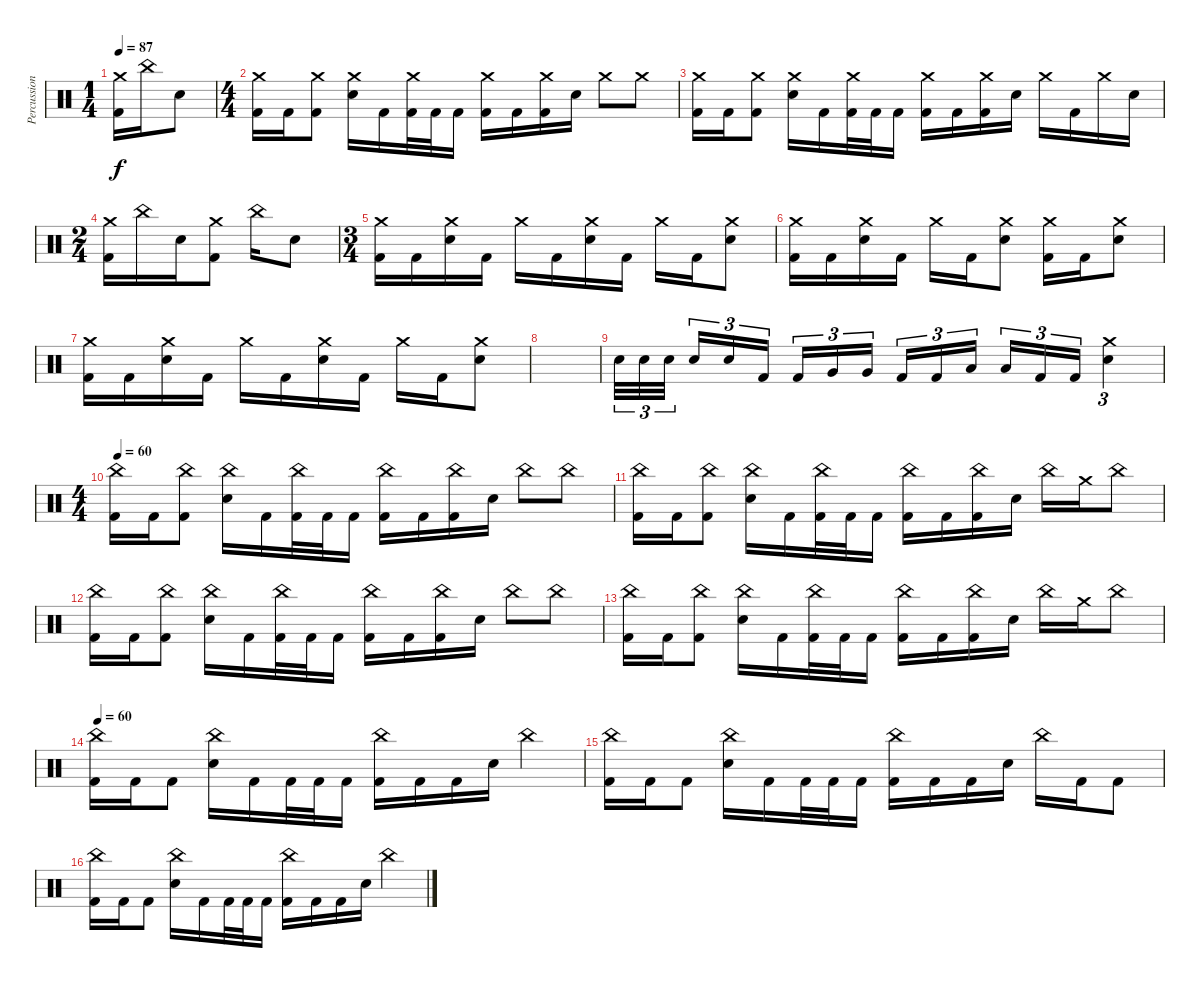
\track ("Percussion" "Percussion") {instrument percussion}
\staff {score}
\articulation defaults
\ts (1 4)
\tempo 87
\clef neutral
\ks c
("Crash medium (hit)" "Kick (hit) 2").16{dy f} "China (hit)".16 "Electric Snare (hit)".8 |
\ts (4 4)
("Crash medium (hit)" "Kick (hit) 2").16 "Kick (hit) 2".16 ("Crash medium (hit)" "Kick (hit) 2").8 ("Crash medium (hit)" "Electric Snare (hit)").16 "Kick (hit) 2".16 ("Crash medium (hit)" "Kick (hit) 2").32 "Kick (hit) 2".32 "Kick (hit) 2".16 ("Crash medium (hit)" "Kick (hit) 2").16 "Kick (hit) 2".16 ("Crash medium (hit)" "Kick (hit) 2").16 "Electric Snare (hit)".16 "Crash medium (hit)".8 "Crash medium (hit)".8 |
("Crash medium (hit)" "Kick (hit) 2").16 "Kick (hit) 2".16 ("Crash medium (hit)" "Kick (hit) 2").8 ("Crash medium (hit)" "Electric Snare (hit)").16 "Kick (hit) 2".16 ("Crash medium (hit)" "Kick (hit) 2").32 "Kick (hit) 2".32 "Kick (hit) 2".16 ("Crash medium (hit)" "Kick (hit) 2").16 "Kick (hit) 2".16 ("Crash medium (hit)" "Kick (hit) 2").16 "Electric Snare (hit)".16 "Crash medium (hit)".16 "Kick (hit) 2".16 "Crash medium (hit)".16 "Electric Snare (hit)".16 |
\ts (2 4)
("Crash medium (hit)" "Kick (hit) 2").16 "China (hit)".16 "Electric Snare (hit)".16 ("Crash medium (hit)" "Kick (hit) 2").8 "China (hit)".16 "Electric Snare (hit)".8 |
\ts (3 4)
("Crash medium (hit)" "Kick (hit) 2").16 "Kick (hit) 2".16 ("Crash medium (hit)" "Electric Snare (hit)").16 "Kick (hit) 2".16 "Crash medium (hit)".16 "Kick (hit) 2".16 ("Crash medium (hit)" "Electric Snare (hit)").16 "Kick (hit) 2".16 "Crash medium (hit)".16 "Kick (hit) 2".16 ("Crash medium (hit)" "Electric Snare (hit)").8 |
("Crash medium (hit)" "Kick (hit) 2").16 "Kick (hit) 2".16 ("Crash medium (hit)" "Electric Snare (hit)").16 "Kick (hit) 2".16 "Crash medium (hit)".16 "Kick (hit) 2".16 ("Crash medium (hit)" "Electric Snare (hit)").8 ("Crash medium (hit)" "Kick (hit) 2").16 "Kick (hit) 2".16 ("Crash medium (hit)" "Electric Snare (hit)").8 |
("Crash medium (hit)" "Kick (hit) 2").16 "Kick (hit) 2".16 ("Crash medium (hit)" "Electric Snare (hit)").16 "Kick (hit) 2".16 "Crash medium (hit)".16 "Kick (hit) 2".16 ("Crash medium (hit)" "Electric Snare (hit)").16 "Kick (hit) 2".16 "Crash medium (hit)".16 "Kick (hit) 2".16 ("Crash medium (hit)" "Electric Snare (hit)").8 |
|
"Electric Snare (hit)".32{tu (3 2)} "Electric Snare (hit)".32{tu (3 2)} "Electric Snare (hit)".32{tu (3 2) beam splitsecondary} "Electric Snare (hit)".16{tu (3 2)} "Electric Snare (hit)".16{tu (3 2)} "Kick (hit) 2".16{tu (3 2) beam splitsecondary} "Kick (hit) 2".16{tu (3 2)} "Very Low Tom (hit)".16{tu (3 2)} "Very Low Tom (hit)".16{tu (3 2) beam splitsecondary} "Kick (hit) 2".16{tu (3 2)} "Kick (hit) 2".16{tu (3 2)} "Low Floor Tom (hit)".16{tu (3 2) beam splitsecondary} "Low Floor Tom (hit)".16{tu (3 2)} "Kick (hit) 2".16{tu (3 2)} "Kick (hit) 2".16{tu (3 2)} ("Crash medium (hit)" "Electric Snare (hit)").4{tu (3 2)} |
\ts (4 4)
\tempo 60
("China (hit)" "Kick (hit) 2").16 "Kick (hit) 2".16 ("China (hit)" "Kick (hit) 2").8 ("China (hit)" "Electric Snare (hit)").16 "Kick (hit) 2".16 ("China (hit)" "Kick (hit) 2").32 "Kick (hit) 2".32 "Kick (hit) 2".16 ("China (hit)" "Kick (hit) 2").16 "Kick (hit) 2".16 ("China (hit)" "Kick (hit) 2").16 "Electric Snare (hit)".16 "China (hit)".8 "China (hit)".8 |
("China (hit)" "Kick (hit) 2").16 "Kick (hit) 2".16 ("China (hit)" "Kick (hit) 2").8 ("China (hit)" "Electric Snare (hit)").16 "Kick (hit) 2".16 ("China (hit)" "Kick (hit) 2").32 "Kick (hit) 2".32 "Kick (hit) 2".16 ("China (hit)" "Kick (hit) 2").16 "Kick (hit) 2".16 ("China (hit)" "Kick (hit) 2").16 "Electric Snare (hit)".16 "China (hit)".16 "Crash medium (hit)".16 "China (hit)".8 |
("China (hit)" "Kick (hit) 2").16 "Kick (hit) 2".16 ("China (hit)" "Kick (hit) 2").8 ("China (hit)" "Electric Snare (hit)").16 "Kick (hit) 2".16 ("China (hit)" "Kick (hit) 2").32 "Kick (hit) 2".32 "Kick (hit) 2".16 ("China (hit)" "Kick (hit) 2").16 "Kick (hit) 2".16 ("China (hit)" "Kick (hit) 2").16 "Electric Snare (hit)".16 "China (hit)".8 "China (hit)".8 |
("China (hit)" "Kick (hit) 2").16 "Kick (hit) 2".16 ("China (hit)" "Kick (hit) 2").8 ("China (hit)" "Electric Snare (hit)").16 "Kick (hit) 2".16 ("China (hit)" "Kick (hit) 2").32 "Kick (hit) 2".32 "Kick (hit) 2".16 ("China (hit)" "Kick (hit) 2").16 "Kick (hit) 2".16 ("China (hit)" "Kick (hit) 2").16 "Electric Snare (hit)".16 "China (hit)".16 "Crash medium (hit)".16 "China (hit)".8 |
\tempo 60
("China (hit)" "Kick (hit) 2").16 "Kick (hit) 2".16 "Kick (hit) 2".8 ("China (hit)" "Electric Snare (hit)").16 "Kick (hit) 2".16 "Kick (hit) 2".32 "Kick (hit) 2".32 "Kick (hit) 2".16 ("China (hit)" "Kick (hit) 2").16 "Kick (hit) 2".16 "Kick (hit) 2".16 "Electric Snare (hit)".16 "China (hit)".4 |
("China (hit)" "Kick (hit) 2").16 "Kick (hit) 2".16 "Kick (hit) 2".8 ("China (hit)" "Electric Snare (hit)").16 "Kick (hit) 2".16 "Kick (hit) 2".32 "Kick (hit) 2".32 "Kick (hit) 2".16 ("China (hit)" "Kick (hit) 2").16 "Kick (hit) 2".16 "Kick (hit) 2".16 "Electric Snare (hit)".16 "China (hit)".16 "Kick (hit) 2".16 "Kick (hit) 2".8 |
("China (hit)" "Kick (hit) 2").16 "Kick (hit) 2".16 "Kick (hit) 2".8 ("China (hit)" "Electric Snare (hit)").16 "Kick (hit) 2".16 "Kick (hit) 2".32 "Kick (hit) 2".32 "Kick (hit) 2".16 ("China (hit)" "Kick (hit) 2").16 "Kick (hit) 2".16 "Kick (hit) 2".16 "Electric Snare (hit)".16 "China (hit)".4
